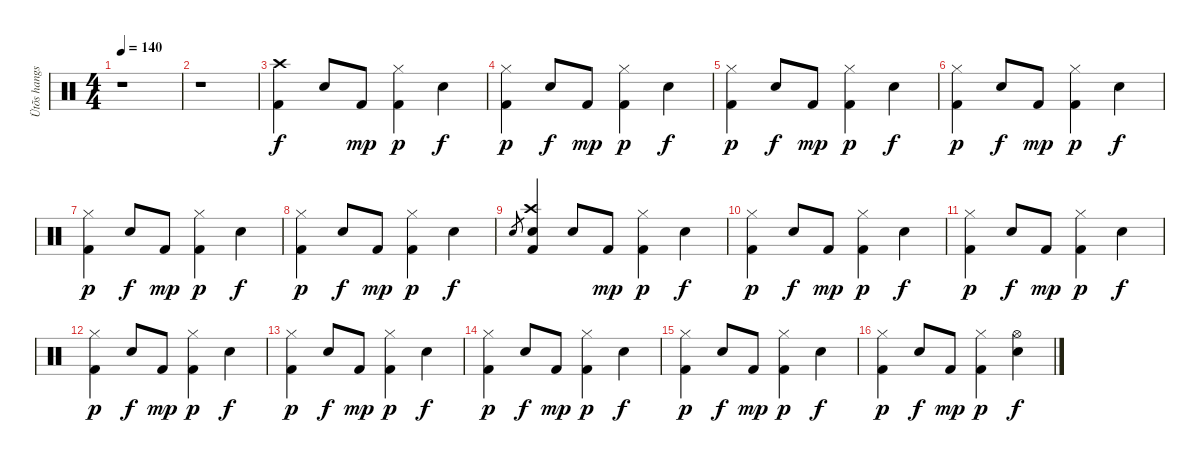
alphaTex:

\track ("Ütõs hangszer" "Ütõs hangs") {instrument percussion}
\staff {score}
\articulation defaults
\ts (4 4)
\tempo 140
\clef neutral
\ks c
r.1{dy f} |
r.1 |
("Kick (hit) 2" "Crash high (hit)").4 "Electric Snare (hit)".8 "Kick (hit) 2".8{dy mp} ("Kick (hit) 2" "Hi-Hat (closed)").4{dy p} "Electric Snare (hit)".4{dy f} |
("Kick (hit) 2" "Hi-Hat (closed)").4{dy p} "Electric Snare (hit)".8{dy f} "Kick (hit) 2".8{dy mp} ("Kick (hit) 2" "Hi-Hat (closed)").4{dy p} "Electric Snare (hit)".4{dy f} |
("Kick (hit) 2" "Hi-Hat (closed)").4{dy p} "Electric Snare (hit)".8{dy f} "Kick (hit) 2".8{dy mp} ("Kick (hit) 2" "Hi-Hat (closed)").4{dy p} "Electric Snare (hit)".4{dy f} |
("Kick (hit) 2" "Hi-Hat (closed)").4{dy p} "Electric Snare (hit)".8{dy f} "Kick (hit) 2".8{dy mp} ("Kick (hit) 2" "Hi-Hat (closed)").4{dy p} "Electric Snare (hit)".4{dy f} |
("Kick (hit) 2" "Hi-Hat (closed)").4{dy p} "Electric Snare (hit)".8{dy f} "Kick (hit) 2".8{dy mp} ("Kick (hit) 2" "Hi-Hat (closed)").4{dy p} "Electric Snare (hit)".4{dy f} |
("Kick (hit) 2" "Hi-Hat (closed)").4{dy p} "Electric Snare (hit)".8{dy f} "Kick (hit) 2".8{dy mp} ("Kick (hit) 2" "Hi-Hat (closed)").4{dy p} "Electric Snare (hit)".4{dy f} |
"Electric Snare (hit)".8{gr} ("Electric Snare (hit)" "Kick (hit) 2" "Crash high (hit)").4 "Electric Snare (hit)".8 "Kick (hit) 2".8{dy mp} ("Kick (hit) 2" "Hi-Hat (closed)").4{dy p} "Electric Snare (hit)".4{dy f} |
("Kick (hit) 2" "Hi-Hat (closed)").4{dy p} "Electric Snare (hit)".8{dy f} "Kick (hit) 2".8{dy mp} ("Kick (hit) 2" "Hi-Hat (closed)").4{dy p} "Electric Snare (hit)".4{dy f} |
("Kick (hit) 2" "Hi-Hat (closed)").4{dy p} "Electric Snare (hit)".8{dy f} "Kick (hit) 2".8{dy mp} ("Kick (hit) 2" "Hi-Hat (closed)").4{dy p} "Electric Snare (hit)".4{dy f} |
("Kick (hit) 2" "Hi-Hat (closed)").4{dy p} "Electric Snare (hit)".8{dy f} "Kick (hit) 2".8{dy mp} ("Kick (hit) 2" "Hi-Hat (closed)").4{dy p} "Electric Snare (hit)".4{dy f} |
("Kick (hit) 2" "Hi-Hat (closed)").4{dy p} "Electric Snare (hit)".8{dy f} "Kick (hit) 2".8{dy mp} ("Kick (hit) 2" "Hi-Hat (closed)").4{dy p} "Electric Snare (hit)".4{dy f} |
("Kick (hit) 2" "Hi-Hat (closed)").4{dy p} "Electric Snare (hit)".8{dy f} "Kick (hit) 2".8{dy mp} ("Kick (hit) 2" "Hi-Hat (closed)").4{dy p} "Electric Snare (hit)".4{dy f} |
("Kick (hit) 2" "Hi-Hat (closed)").4{dy p} "Electric Snare (hit)".8{dy f} "Kick (hit) 2".8{dy mp} ("Kick (hit) 2" "Hi-Hat (closed)").4{dy p} "Electric Snare (hit)".4{dy f} |
("Kick (hit) 2" "Hi-Hat (closed)").4{dy p} "Electric Snare (hit)".8{dy f} "Kick (hit) 2".8{dy mp} ("Kick (hit) 2" "Hi-Hat (closed)").4{dy p} ("Electric Snare (hit)" "Hi-Hat (open)").4{dy f}
